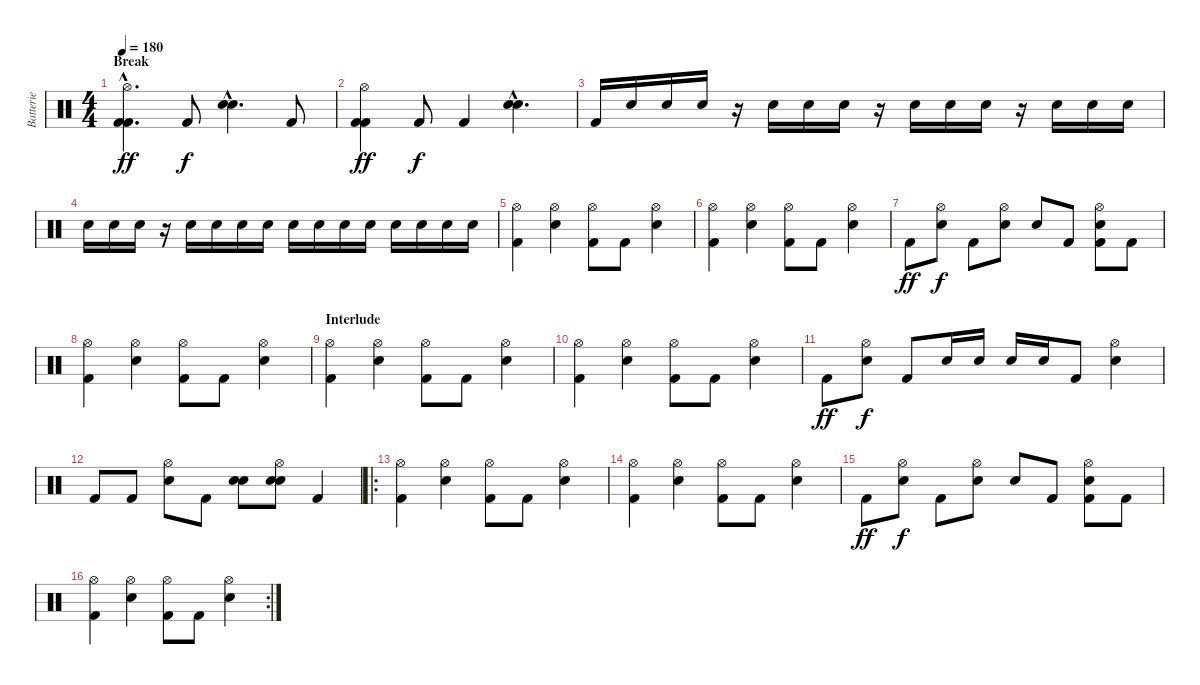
\track ("Batterie" "Batterie") {instrument percussion}
\staff {score}
\articulation defaults
\ts (4 4)
\section ("" "Break")
\tempo 180
\clef neutral
\ks c
("Hi-Hat (open)"{hac} "Kick (hit) 2"{hac} "Kick (hit) 2"{hac}).4{d dy ff volume 16} "Kick (hit) 2".8{dy f} ("Electric Snare (hit)"{hac} "Electric Snare (hit)"{hac}).4{d} "Kick (hit) 2".8 |
("Hi-Hat (open)" "Kick (hit) 2" "Kick (hit) 2").4{dy ff} "Kick (hit) 2".8{dy f} "Kick (hit) 2".4 ("Electric Snare (hit)"{hac} "Electric Snare (hit)"{hac}).4{d} |
"Kick (hit) 2".16 "Electric Snare (hit)".16{volume 6} "Electric Snare (hit)".16 "Electric Snare (hit)".16 r.16 "Electric Snare (hit)".16{volume 7} "Electric Snare (hit)".16 "Electric Snare (hit)".16 r.16 "Electric Snare (hit)".16{volume 9} "Electric Snare (hit)".16 "Electric Snare (hit)".16 r.16 "Electric Snare (hit)".16{volume 10} "Electric Snare (hit)".16 "Electric Snare (hit)".16 |
"Electric Snare (hit)".16{volume 12} "Electric Snare (hit)".16 "Electric Snare (hit)".16 r.16 "Electric Snare (hit)".16{volume 14} "Electric Snare (hit)".16 "Electric Snare (hit)".16 "Electric Snare (hit)".16 "Electric Snare (hit)".16{volume 16} "Electric Snare (hit)".16 "Electric Snare (hit)".16 "Electric Snare (hit)".16 "Electric Snare (hit)".16 "Electric Snare (hit)".16 "Electric Snare (hit)".16 "Electric Snare (hit)".16 |
("Hi-Hat (open)" "Kick (hit) 2").4 ("Hi-Hat (open)" "Electric Snare (hit)").4 ("Hi-Hat (open)" "Kick (hit) 2").8 "Kick (hit) 2".8 ("Hi-Hat (open)" "Electric Snare (hit)").4 |
("Hi-Hat (open)" "Kick (hit) 2").4 ("Hi-Hat (open)" "Electric Snare (hit)").4 ("Hi-Hat (open)" "Kick (hit) 2").8 "Kick (hit) 2".8 ("Hi-Hat (open)" "Electric Snare (hit)").4 |
"Kick (hit) 2".8{dy ff} ("Hi-Hat (open)" "Electric Snare (hit)").8{dy f} "Kick (hit) 2".8 ("Hi-Hat (open)" "Electric Snare (hit)").8 "Electric Snare (hit)".8 "Kick (hit) 2".8 ("Hi-Hat (open)" "Electric Snare (hit)" "Kick (hit) 2").8 "Kick (hit) 2".8 |
("Hi-Hat (open)" "Kick (hit) 2").4 ("Hi-Hat (open)" "Electric Snare (hit)").4 ("Hi-Hat (open)" "Kick (hit) 2").8 "Kick (hit) 2".8 ("Hi-Hat (open)" "Electric Snare (hit)").4 |
\section ("" "Interlude")
("Hi-Hat (open)" "Kick (hit) 2").4 ("Hi-Hat (open)" "Electric Snare (hit)").4 ("Hi-Hat (open)" "Kick (hit) 2").8 "Kick (hit) 2".8 ("Hi-Hat (open)" "Electric Snare (hit)").4 |
("Hi-Hat (open)" "Kick (hit) 2").4 ("Hi-Hat (open)" "Electric Snare (hit)").4 ("Hi-Hat (open)" "Kick (hit) 2").8 "Kick (hit) 2".8 ("Hi-Hat (open)" "Electric Snare (hit)").4 |
"Kick (hit) 2".8{dy ff} ("Hi-Hat (open)" "Electric Snare (hit)").8{dy f} "Kick (hit) 2".8 "Electric Snare (hit)".16 "Electric Snare (hit)".16 "Electric Snare (hit)".16 "Electric Snare (hit)".16 "Kick (hit) 2".8 ("Hi-Hat (open)" "Electric Snare (hit)").4 |
"Kick (hit) 2".8 "Kick (hit) 2".8 ("Hi-Hat (open)" "Electric Snare (hit)").8 "Kick (hit) 2".8 ("Electric Snare (hit)" "Electric Snare (hit)").8 ("Hi-Hat (open)" "Electric Snare (hit)" "Electric Snare (hit)").8 "Kick (hit) 2".4 |
\ro
("Hi-Hat (open)" "Kick (hit) 2").4 ("Hi-Hat (open)" "Electric Snare (hit)").4 ("Hi-Hat (open)" "Kick (hit) 2").8 "Kick (hit) 2".8 ("Hi-Hat (open)" "Electric Snare (hit)").4 |
("Hi-Hat (open)" "Kick (hit) 2").4 ("Hi-Hat (open)" "Electric Snare (hit)").4 ("Hi-Hat (open)" "Kick (hit) 2").8 "Kick (hit) 2".8 ("Hi-Hat (open)" "Electric Snare (hit)").4 |
"Kick (hit) 2".8{dy ff} ("Hi-Hat (open)" "Electric Snare (hit)").8{dy f} "Kick (hit) 2".8 ("Hi-Hat (open)" "Electric Snare (hit)").8 "Electric Snare (hit)".8 "Kick (hit) 2".8 ("Hi-Hat (open)" "Electric Snare (hit)" "Kick (hit) 2").8 "Kick (hit) 2".8 |
\rc 2
("Hi-Hat (open)" "Kick (hit) 2").4 ("Hi-Hat (open)" "Electric Snare (hit)").4 ("Hi-Hat (open)" "Kick (hit) 2").8 "Kick (hit) 2".8 ("Hi-Hat (open)" "Electric Snare (hit)").4
